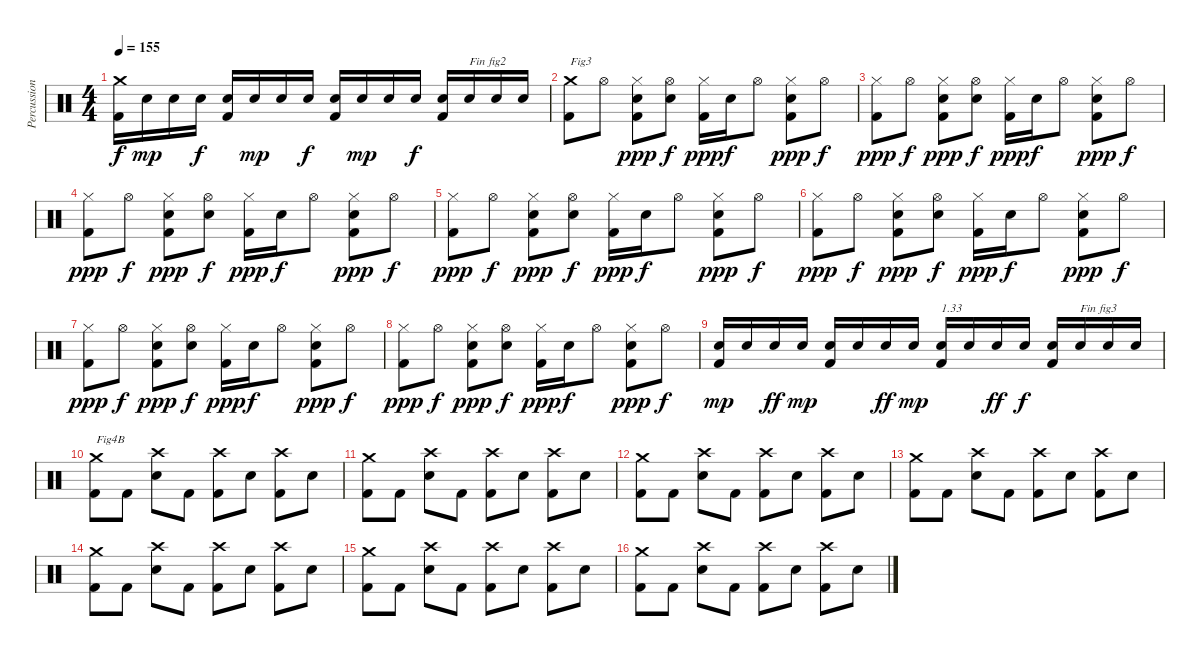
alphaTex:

\track ("Percussions" "Percussion") {instrument percussion}
\staff {score}
\articulation defaults
\ts (4 4)
\tempo 155
\clef neutral
\ks c
("Kick (hit) 2" "Crash medium (hit)").16{dy f} "Electric Snare (hit)".16{dy mp} "Electric Snare (hit)".16 "Electric Snare (hit)".16{dy f} ("Kick (hit) 2" "Electric Snare (hit)").16 "Electric Snare (hit)".16{dy mp} "Electric Snare (hit)".16 "Electric Snare (hit)".16{dy f} ("Kick (hit) 2" "Electric Snare (hit)").16 "Electric Snare (hit)".16{dy mp} "Electric Snare (hit)".16 "Electric Snare (hit)".16{dy f} ("Kick (hit) 2" "Electric Snare (hit)").16 "Electric Snare (hit)".16{txt "Fin fig2"} "Electric Snare (hit)".16 "Electric Snare (hit)".16 |
("Kick (hit) 2" "Crash medium (hit)").8{txt "Fig3"} "Hi-Hat (open)".8 ("Kick (hit) 2" "Electric Snare (hit)" "Hi-Hat (closed)").8{dy ppp} ("Electric Snare (hit)" "Hi-Hat (open)").8{dy f} ("Kick (hit) 2" "Hi-Hat (closed)").16{dy ppp} "Electric Snare (hit)".16{dy f} "Hi-Hat (open)".8 ("Kick (hit) 2" "Electric Snare (hit)" "Hi-Hat (closed)").8{dy ppp} "Hi-Hat (open)".8{dy f} |
("Kick (hit) 2" "Hi-Hat (closed)").8{dy ppp} "Hi-Hat (open)".8{dy f} ("Kick (hit) 2" "Electric Snare (hit)" "Hi-Hat (closed)").8{dy ppp} ("Electric Snare (hit)" "Hi-Hat (open)").8{dy f} ("Kick (hit) 2" "Hi-Hat (closed)").16{dy ppp} "Electric Snare (hit)".16{dy f} "Hi-Hat (open)".8 ("Kick (hit) 2" "Electric Snare (hit)" "Hi-Hat (closed)").8{dy ppp} "Hi-Hat (open)".8{dy f} |
("Kick (hit) 2" "Hi-Hat (closed)").8{dy ppp} "Hi-Hat (open)".8{dy f} ("Kick (hit) 2" "Electric Snare (hit)" "Hi-Hat (closed)").8{dy ppp} ("Electric Snare (hit)" "Hi-Hat (open)").8{dy f} ("Kick (hit) 2" "Hi-Hat (closed)").16{dy ppp} "Electric Snare (hit)".16{dy f} "Hi-Hat (open)".8 ("Kick (hit) 2" "Electric Snare (hit)" "Hi-Hat (closed)").8{dy ppp} "Hi-Hat (open)".8{dy f} |
("Kick (hit) 2" "Hi-Hat (closed)").8{dy ppp} "Hi-Hat (open)".8{dy f} ("Kick (hit) 2" "Electric Snare (hit)" "Hi-Hat (closed)").8{dy ppp} ("Electric Snare (hit)" "Hi-Hat (open)").8{dy f} ("Kick (hit) 2" "Hi-Hat (closed)").16{dy ppp} "Electric Snare (hit)".16{dy f} "Hi-Hat (open)".8 ("Kick (hit) 2" "Electric Snare (hit)" "Hi-Hat (closed)").8{dy ppp} "Hi-Hat (open)".8{dy f} |
("Kick (hit) 2" "Hi-Hat (closed)").8{dy ppp} "Hi-Hat (open)".8{dy f} ("Kick (hit) 2" "Electric Snare (hit)" "Hi-Hat (closed)").8{dy ppp} ("Electric Snare (hit)" "Hi-Hat (open)").8{dy f} ("Kick (hit) 2" "Hi-Hat (closed)").16{dy ppp} "Electric Snare (hit)".16{dy f} "Hi-Hat (open)".8 ("Kick (hit) 2" "Electric Snare (hit)" "Hi-Hat (closed)").8{dy ppp} "Hi-Hat (open)".8{dy f} |
("Kick (hit) 2" "Hi-Hat (closed)").8{dy ppp} "Hi-Hat (open)".8{dy f} ("Kick (hit) 2" "Electric Snare (hit)" "Hi-Hat (closed)").8{dy ppp} ("Electric Snare (hit)" "Hi-Hat (open)").8{dy f} ("Kick (hit) 2" "Hi-Hat (closed)").16{dy ppp} "Electric Snare (hit)".16{dy f} "Hi-Hat (open)".8 ("Kick (hit) 2" "Electric Snare (hit)" "Hi-Hat (closed)").8{dy ppp} "Hi-Hat (open)".8{dy f} |
("Kick (hit) 2" "Hi-Hat (closed)").8{dy ppp} "Hi-Hat (open)".8{dy f} ("Kick (hit) 2" "Electric Snare (hit)" "Hi-Hat (closed)").8{dy ppp} ("Electric Snare (hit)" "Hi-Hat (open)").8{dy f} ("Kick (hit) 2" "Hi-Hat (closed)").16{dy ppp} "Electric Snare (hit)".16{dy f} "Hi-Hat (open)".8 ("Kick (hit) 2" "Electric Snare (hit)" "Hi-Hat (closed)").8{dy ppp} "Hi-Hat (open)".8{dy f} |
("Kick (hit) 2" "Electric Snare (hit)").16{dy mp} "Electric Snare (hit)".16 "Electric Snare (hit)".16{dy ff} "Electric Snare (hit)".16{dy mp} ("Kick (hit) 2" "Electric Snare (hit)").16 "Electric Snare (hit)".16 "Electric Snare (hit)".16{dy ff} "Electric Snare (hit)".16{dy mp} ("Kick (hit) 2" "Electric Snare (hit)").16{txt "1.33"} "Electric Snare (hit)".16 "Electric Snare (hit)".16{dy ff} "Electric Snare (hit)".16{dy f} ("Kick (hit) 2" "Electric Snare (hit)").16 "Electric Snare (hit)".16{txt "Fin fig3"} "Electric Snare (hit)".16 "Electric Snare (hit)".16 |
("Kick (hit) 2" "Crash medium (hit)").8{txt "Fig4B"} "Kick (hit) 2".8 ("Electric Snare (hit)" "Crash high (hit)").8 "Kick (hit) 2".8 ("Kick (hit) 2" "Crash high (hit)").8 "Electric Snare (hit)".8 ("Kick (hit) 2" "Crash high (hit)").8 "Electric Snare (hit)".8 |
("Kick (hit) 2" "Crash medium (hit)").8 "Kick (hit) 2".8 ("Electric Snare (hit)" "Crash high (hit)").8 "Kick (hit) 2".8 ("Kick (hit) 2" "Crash high (hit)").8 "Electric Snare (hit)".8 ("Kick (hit) 2" "Crash high (hit)").8 "Electric Snare (hit)".8 |
("Kick (hit) 2" "Crash medium (hit)").8 "Kick (hit) 2".8 ("Electric Snare (hit)" "Crash high (hit)").8 "Kick (hit) 2".8 ("Kick (hit) 2" "Crash high (hit)").8 "Electric Snare (hit)".8 ("Kick (hit) 2" "Crash high (hit)").8 "Electric Snare (hit)".8 |
("Kick (hit) 2" "Crash medium (hit)").8 "Kick (hit) 2".8 ("Electric Snare (hit)" "Crash high (hit)").8 "Kick (hit) 2".8 ("Kick (hit) 2" "Crash high (hit)").8 "Electric Snare (hit)".8 ("Kick (hit) 2" "Crash high (hit)").8 "Electric Snare (hit)".8 |
("Kick (hit) 2" "Crash medium (hit)").8 "Kick (hit) 2".8 ("Electric Snare (hit)" "Crash high (hit)").8 "Kick (hit) 2".8 ("Kick (hit) 2" "Crash high (hit)").8 "Electric Snare (hit)".8 ("Kick (hit) 2" "Crash high (hit)").8 "Electric Snare (hit)".8 |
("Kick (hit) 2" "Crash medium (hit)").8 "Kick (hit) 2".8 ("Electric Snare (hit)" "Crash high (hit)").8 "Kick (hit) 2".8 ("Kick (hit) 2" "Crash high (hit)").8 "Electric Snare (hit)".8 ("Kick (hit) 2" "Crash high (hit)").8 "Electric Snare (hit)".8 |
("Kick (hit) 2" "Crash medium (hit)").8 "Kick (hit) 2".8 ("Electric Snare (hit)" "Crash high (hit)").8 "Kick (hit) 2".8 ("Kick (hit) 2" "Crash high (hit)").8 "Electric Snare (hit)".8 ("Kick (hit) 2" "Crash high (hit)").8 "Electric Snare (hit)".8
